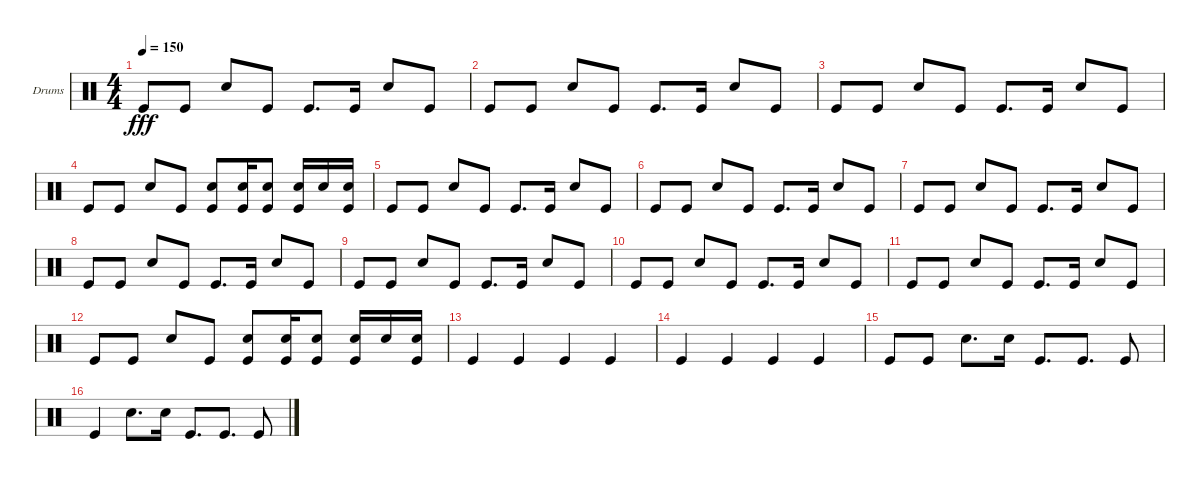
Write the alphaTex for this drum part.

\defaultSystemsLayout 4
\bracketExtendMode groupsimilarinstruments
\firstSystemTrackNameOrientation horizontal
\otherSystemsTrackNameOrientation horizontal
\track ("Helders" "Drums") {instrument percussion}
\staff {score}
\articulation defaults
\ts (4 4)
\tempo 150
\clef neutral
\ks c "Kick (hit)".8{dy fff} "Kick (hit)".8 "Snare (hit) 2".8 "Kick (hit)".8 "Kick (hit)".8{d} "Kick (hit)".16 "Snare (hit) 2".8 "Kick (hit)".8
|
"Kick (hit)".8 "Kick (hit)".8 "Snare (hit) 2".8 "Kick (hit)".8 "Kick (hit)".8{d} "Kick (hit)".16 "Snare (hit) 2".8 "Kick (hit)".8 |
"Kick (hit)".8 "Kick (hit)".8 "Snare (hit) 2".8 "Kick (hit)".8 "Kick (hit)".8{d} "Kick (hit)".16 "Snare (hit) 2".8 "Kick (hit)".8 |
"Kick (hit)".8 "Kick (hit)".8 "Snare (hit) 2".8 "Kick (hit)".8 ("Snare (hit) 2" "Kick (hit)").8 ("Snare (hit) 2" "Kick (hit)").16 ("Snare (hit) 2" "Kick (hit)").8 ("Snare (hit) 2" "Kick (hit)").16 "Snare (hit) 2".16 ("Snare (hit) 2" "Kick (hit)").16 |
"Kick (hit)".8 "Kick (hit)".8 "Snare (hit) 2".8 "Kick (hit)".8 "Kick (hit)".8{d} "Kick (hit)".16 "Snare (hit) 2".8 "Kick (hit)".8 |
"Kick (hit)".8 "Kick (hit)".8 "Snare (hit) 2".8 "Kick (hit)".8 "Kick (hit)".8{d} "Kick (hit)".16 "Snare (hit) 2".8 "Kick (hit)".8 |
"Kick (hit)".8 "Kick (hit)".8 "Snare (hit) 2".8 "Kick (hit)".8 "Kick (hit)".8{d} "Kick (hit)".16 "Snare (hit) 2".8 "Kick (hit)".8 |
"Kick (hit)".8 "Kick (hit)".8 "Snare (hit) 2".8 "Kick (hit)".8 "Kick (hit)".8{d} "Kick (hit)".16 "Snare (hit) 2".8 "Kick (hit)".8 |
"Kick (hit)".8 "Kick (hit)".8 "Snare (hit) 2".8 "Kick (hit)".8 "Kick (hit)".8{d} "Kick (hit)".16 "Snare (hit) 2".8 "Kick (hit)".8 |
"Kick (hit)".8 "Kick (hit)".8 "Snare (hit) 2".8 "Kick (hit)".8 "Kick (hit)".8{d} "Kick (hit)".16 "Snare (hit) 2".8 "Kick (hit)".8 |
"Kick (hit)".8 "Kick (hit)".8 "Snare (hit) 2".8 "Kick (hit)".8 "Kick (hit)".8{d} "Kick (hit)".16 "Snare (hit) 2".8 "Kick (hit)".8 |
"Kick (hit)".8 "Kick (hit)".8 "Snare (hit) 2".8 "Kick (hit)".8 ("Snare (hit) 2" "Kick (hit)").8 ("Snare (hit) 2" "Kick (hit)").16 ("Snare (hit) 2" "Kick (hit)").8 ("Snare (hit) 2" "Kick (hit)").16 "Snare (hit) 2".16 ("Snare (hit) 2" "Kick (hit)").16 |
"Kick (hit)".4 "Kick (hit)".4 "Kick (hit)".4 "Kick (hit)".4 |
"Kick (hit)".4 "Kick (hit)".4 "Kick (hit)".4 "Kick (hit)".4 |
"Kick (hit)".8 "Kick (hit)".8 "Snare (hit) 2".8{d} "Snare (hit) 2".16 "Kick (hit)".8{d} "Kick (hit)".8{d} "Kick (hit)".8 |
"Kick (hit)".4 "Snare (hit) 2".8{d} "Snare (hit) 2".16 "Kick (hit)".8{d} "Kick (hit)".8{d} "Kick (hit)".8
